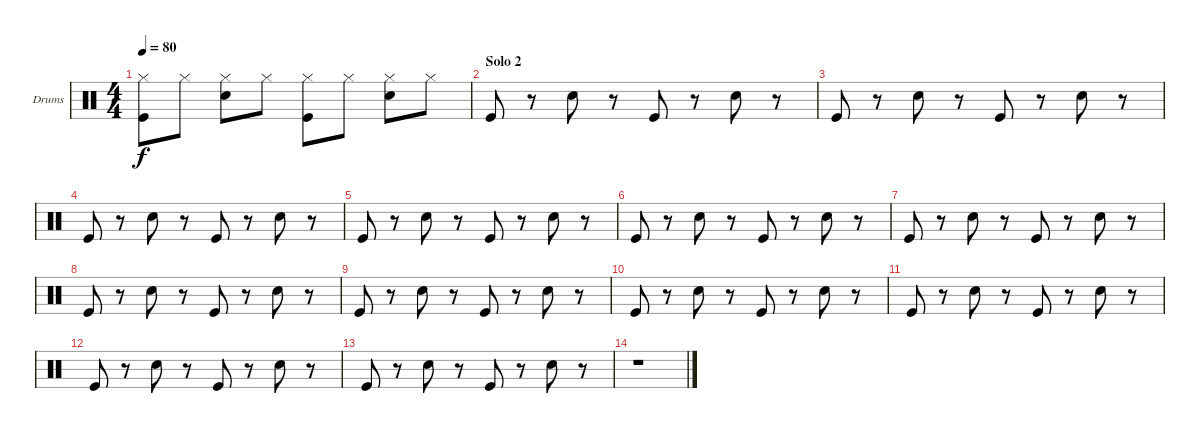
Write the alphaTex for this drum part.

\bracketExtendMode groupsimilarinstruments
\firstSystemTrackNameOrientation horizontal
\otherSystemsTrackNameOrientation horizontal
\chordDiagramsInScore
\track ("Drumkit" "Drums") {instrument percussion}
\staff {score}
\articulation defaults
\ts (4 4)
\tempo 80
\clef neutral
\ks c
("Hi-Hat (closed)" "Kick (hit)").8{dy f} "Hi-Hat (closed)".8 ("Hi-Hat (closed)" "Snare (hit) 2").8 "Hi-Hat (closed)".8 ("Hi-Hat (closed)" "Kick (hit)").8 "Hi-Hat (closed)".8 ("Hi-Hat (closed)" "Snare (hit) 2").8 "Hi-Hat (closed)".8 |
\section ("" "Solo 2")
"Kick (hit)".8 r.8 "Snare (hit) 2".8 r.8 "Kick (hit)".8 r.8 "Snare (hit) 2".8 r.8 |
"Kick (hit)".8 r.8 "Snare (hit) 2".8 r.8 "Kick (hit)".8 r.8 "Snare (hit) 2".8 r.8 |
"Kick (hit)".8 r.8 "Snare (hit) 2".8 r.8 "Kick (hit)".8 r.8 "Snare (hit) 2".8 r.8 |
"Kick (hit)".8 r.8 "Snare (hit) 2".8 r.8 "Kick (hit)".8 r.8 "Snare (hit) 2".8 r.8 |
"Kick (hit)".8 r.8 "Snare (hit) 2".8 r.8 "Kick (hit)".8 r.8 "Snare (hit) 2".8 r.8 |
"Kick (hit)".8 r.8 "Snare (hit) 2".8 r.8 "Kick (hit)".8 r.8 "Snare (hit) 2".8 r.8 |
"Kick (hit)".8 r.8 "Snare (hit) 2".8 r.8 "Kick (hit)".8 r.8 "Snare (hit) 2".8 r.8 |
"Kick (hit)".8 r.8 "Snare (hit) 2".8 r.8 "Kick (hit)".8 r.8 "Snare (hit) 2".8 r.8 |
"Kick (hit)".8 r.8 "Snare (hit) 2".8 r.8 "Kick (hit)".8 r.8 "Snare (hit) 2".8 r.8 |
"Kick (hit)".8 r.8 "Snare (hit) 2".8 r.8 "Kick (hit)".8 r.8 "Snare (hit) 2".8 r.8 |
"Kick (hit)".8 r.8 "Snare (hit) 2".8 r.8 "Kick (hit)".8 r.8 "Snare (hit) 2".8 r.8 |
"Kick (hit)".8 r.8 "Snare (hit) 2".8 r.8 "Kick (hit)".8 r.8 "Snare (hit) 2".8 r.8 |
r.1
